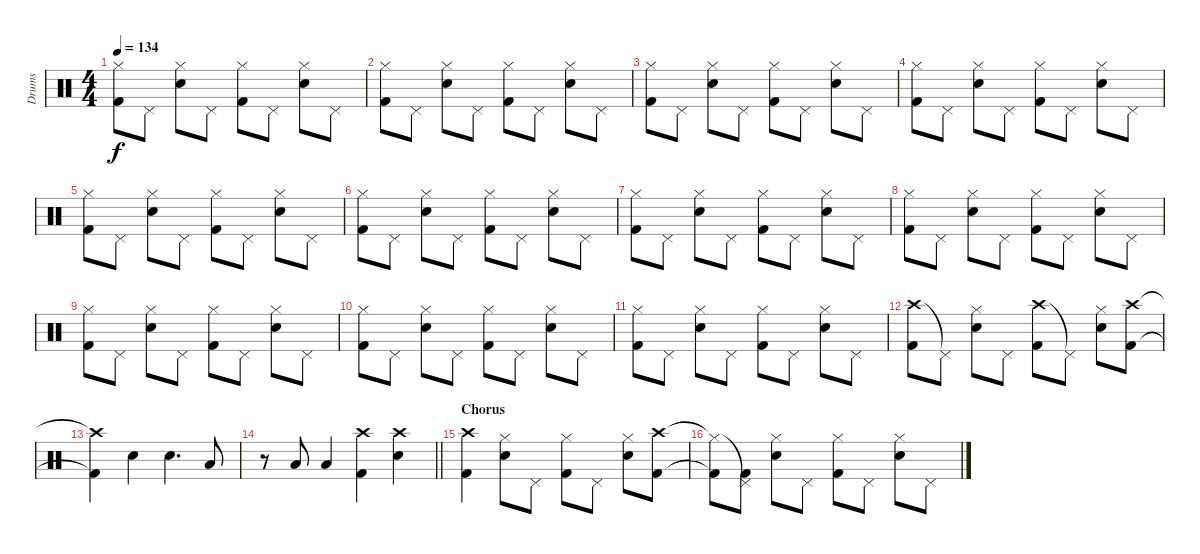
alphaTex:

\track ("Drums" "Drums") {instrument percussion}
\staff {score}
\articulation defaults
\ts (4 4)
\tempo 134
\clef neutral
\ks c
("Hi-Hat (closed)" "Kick (hit) 2").8{dy f} "Pedal Hi-Hat (hit)".8 ("Hi-Hat (closed)" "Snare (hit) 2").8 "Pedal Hi-Hat (hit)".8 ("Hi-Hat (closed)" "Kick (hit) 2").8 "Pedal Hi-Hat (hit)".8 ("Hi-Hat (closed)" "Snare (hit) 2").8 "Pedal Hi-Hat (hit)".8 |
("Hi-Hat (closed)" "Kick (hit) 2").8 "Pedal Hi-Hat (hit)".8 ("Hi-Hat (closed)" "Snare (hit) 2").8 "Pedal Hi-Hat (hit)".8 ("Hi-Hat (closed)" "Kick (hit) 2").8 "Pedal Hi-Hat (hit)".8 ("Hi-Hat (closed)" "Snare (hit) 2").8 "Pedal Hi-Hat (hit)".8 |
("Hi-Hat (closed)" "Kick (hit) 2").8 "Pedal Hi-Hat (hit)".8 ("Hi-Hat (closed)" "Snare (hit) 2").8 "Pedal Hi-Hat (hit)".8 ("Hi-Hat (closed)" "Kick (hit) 2").8 "Pedal Hi-Hat (hit)".8 ("Hi-Hat (closed)" "Snare (hit) 2").8 "Pedal Hi-Hat (hit)".8 |
("Hi-Hat (closed)" "Kick (hit) 2").8 "Pedal Hi-Hat (hit)".8 ("Hi-Hat (closed)" "Snare (hit) 2").8 "Pedal Hi-Hat (hit)".8 ("Hi-Hat (closed)" "Kick (hit) 2").8 "Pedal Hi-Hat (hit)".8 ("Hi-Hat (closed)" "Snare (hit) 2").8 "Pedal Hi-Hat (hit)".8 |
("Hi-Hat (closed)" "Kick (hit) 2").8 "Pedal Hi-Hat (hit)".8 ("Hi-Hat (closed)" "Snare (hit) 2").8 "Pedal Hi-Hat (hit)".8 ("Hi-Hat (closed)" "Kick (hit) 2").8 "Pedal Hi-Hat (hit)".8 ("Hi-Hat (closed)" "Snare (hit) 2").8 "Pedal Hi-Hat (hit)".8 |
("Hi-Hat (closed)" "Kick (hit) 2").8 "Pedal Hi-Hat (hit)".8 ("Hi-Hat (closed)" "Snare (hit) 2").8 "Pedal Hi-Hat (hit)".8 ("Hi-Hat (closed)" "Kick (hit) 2").8 "Pedal Hi-Hat (hit)".8 ("Hi-Hat (closed)" "Snare (hit) 2").8 "Pedal Hi-Hat (hit)".8 |
("Hi-Hat (closed)" "Kick (hit) 2").8 "Pedal Hi-Hat (hit)".8 ("Hi-Hat (closed)" "Snare (hit) 2").8 "Pedal Hi-Hat (hit)".8 ("Hi-Hat (closed)" "Kick (hit) 2").8 "Pedal Hi-Hat (hit)".8 ("Hi-Hat (closed)" "Snare (hit) 2").8 "Pedal Hi-Hat (hit)".8 |
("Hi-Hat (closed)" "Kick (hit) 2").8 "Pedal Hi-Hat (hit)".8 ("Hi-Hat (closed)" "Snare (hit) 2").8 "Pedal Hi-Hat (hit)".8 ("Hi-Hat (closed)" "Kick (hit) 2").8 "Pedal Hi-Hat (hit)".8 ("Hi-Hat (closed)" "Snare (hit) 2").8 "Pedal Hi-Hat (hit)".8 |
("Hi-Hat (closed)" "Kick (hit) 2").8 "Pedal Hi-Hat (hit)".8 ("Hi-Hat (closed)" "Snare (hit) 2").8 "Pedal Hi-Hat (hit)".8 ("Hi-Hat (closed)" "Kick (hit) 2").8 "Pedal Hi-Hat (hit)".8 ("Hi-Hat (closed)" "Snare (hit) 2").8 "Pedal Hi-Hat (hit)".8 |
("Hi-Hat (closed)" "Kick (hit) 2").8 "Pedal Hi-Hat (hit)".8 ("Hi-Hat (closed)" "Snare (hit) 2").8 "Pedal Hi-Hat (hit)".8 ("Hi-Hat (closed)" "Kick (hit) 2").8 "Pedal Hi-Hat (hit)".8 ("Hi-Hat (closed)" "Snare (hit) 2").8 "Pedal Hi-Hat (hit)".8 |
("Hi-Hat (closed)" "Kick (hit) 2").8 "Pedal Hi-Hat (hit)".8 ("Hi-Hat (closed)" "Snare (hit) 2").8 "Pedal Hi-Hat (hit)".8 ("Hi-Hat (closed)" "Kick (hit) 2").8 "Pedal Hi-Hat (hit)".8 ("Hi-Hat (closed)" "Snare (hit) 2").8 "Pedal Hi-Hat (hit)".8 |
("Crash high (hit)" "Kick (hit) 2").8 "Pedal Hi-Hat (hit)"{t}.8 ("Hi-Hat (closed)" "Snare (hit) 2").8 "Pedal Hi-Hat (hit)".8 ("Crash high (hit)" "Kick (hit) 2").8 "Pedal Hi-Hat (hit)"{t}.8 ("Hi-Hat (closed)" "Snare (hit) 2").8 ("Crash high (hit)" "Kick (hit) 2").8 |
("Crash high (hit)"{t} "Kick (hit) 2"{t}).4 "Snare (hit) 2".4 "Snare (hit) 2".4{d} "Low Tom (hit)".8 |
\barLineRight lightlight
r.8 "Low Tom (hit)".8 "Low Tom (hit)".4 ("Crash high (hit)" "Kick (hit) 2").4 ("Crash high (hit)" "Snare (hit) 2").4 |
\section ("" "Chorus")
("Crash high (hit)" "Kick (hit) 2").4 ("Hi-Hat (closed)" "Snare (hit) 2").8 "Pedal Hi-Hat (hit)".8 ("Hi-Hat (closed)" "Kick (hit) 2").8 "Pedal Hi-Hat (hit)".8 ("Hi-Hat (closed)" "Snare (hit) 2").8 ("Crash high (hit)" "Kick (hit) 2").8 |
("Hi-Hat (closed)"{t} "Kick (hit) 2"{t}).8 ("Pedal Hi-Hat (hit)"{t} "Kick (hit) 2").8 ("Hi-Hat (closed)" "Snare (hit) 2").8 "Pedal Hi-Hat (hit)".8 ("Hi-Hat (closed)" "Kick (hit) 2").8 "Pedal Hi-Hat (hit)".8 ("Hi-Hat (closed)" "Snare (hit) 2").8 "Pedal Hi-Hat (hit)".8
